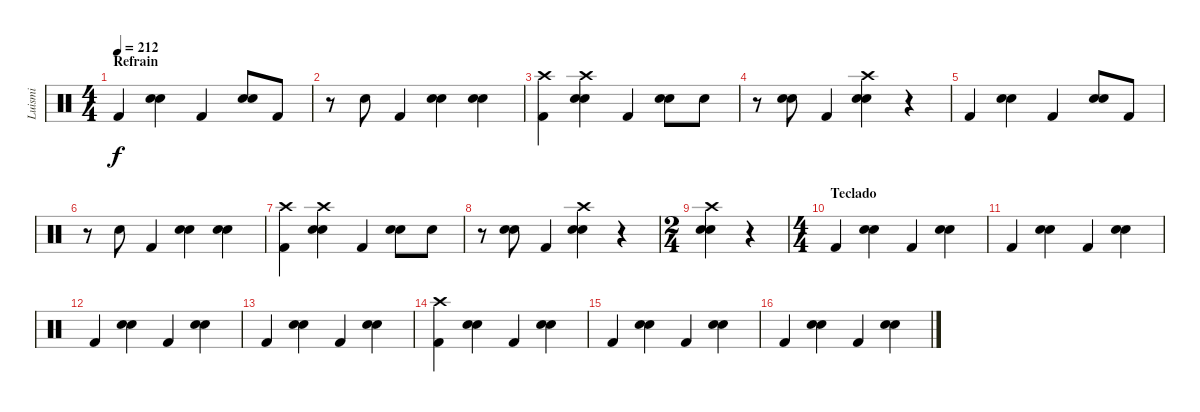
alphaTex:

\track ("Luismi" "Luismi") {instrument percussion}
\staff {score}
\articulation defaults
\ts (4 4)
\section ("" "Refrain")
\tempo 212
\clef neutral
\ks c "Kick (hit) 2".4{dy f}
("Electric Snare (hit)" "Snare (hit) 2").4 "Kick (hit) 2".4 ("Electric Snare (hit)" "Snare (hit) 2").8 "Kick (hit) 2".8 |
r.8 "Electric Snare (hit)".8 "Kick (hit) 2".4 ("Electric Snare (hit)" "Snare (hit) 2").4 ("Electric Snare (hit)" "Snare (hit) 2").4 |
("Crash high (hit)" "Kick (hit) 2").4 ("Crash high (hit)" "Electric Snare (hit)" "Snare (hit) 2").4 "Kick (hit) 2".4 ("Electric Snare (hit)" "Snare (hit) 2").8 "Snare (hit) 2".8 |
r.8 ("Electric Snare (hit)" "Snare (hit) 2").8 "Kick (hit) 2".4 ("Crash high (hit)" "Electric Snare (hit)" "Snare (hit) 2").4 r.4 |
"Kick (hit) 2".4 ("Electric Snare (hit)" "Snare (hit) 2").4 "Kick (hit) 2".4 ("Electric Snare (hit)" "Snare (hit) 2").8 "Kick (hit) 2".8 |
r.8 "Electric Snare (hit)".8 "Kick (hit) 2".4 ("Electric Snare (hit)" "Snare (hit) 2").4 ("Electric Snare (hit)" "Snare (hit) 2").4 |
("Crash high (hit)" "Kick (hit) 2").4 ("Crash high (hit)" "Electric Snare (hit)" "Snare (hit) 2").4 "Kick (hit) 2".4 ("Electric Snare (hit)" "Snare (hit) 2").8 "Snare (hit) 2".8 |
r.8 ("Electric Snare (hit)" "Snare (hit) 2").8 "Kick (hit) 2".4 ("Crash high (hit)" "Electric Snare (hit)" "Snare (hit) 2").4 r.4 |
\ts (2 4)
("Crash high (hit)" "Electric Snare (hit)" "Snare (hit) 2").4 r.4 |
\ts (4 4)
\section ("" "Teclado")
"Kick (hit) 2".4 ("Electric Snare (hit)" "Snare (hit) 2").4 "Kick (hit) 2".4 ("Electric Snare (hit)" "Snare (hit) 2").4 |
"Kick (hit) 2".4 ("Electric Snare (hit)" "Snare (hit) 2").4 "Kick (hit) 2".4 ("Electric Snare (hit)" "Snare (hit) 2").4 |
"Kick (hit) 2".4 ("Snare (hit) 2" "Electric Snare (hit)").4 "Kick (hit) 2".4 ("Electric Snare (hit)" "Snare (hit) 2").4 |
"Kick (hit) 2".4 ("Electric Snare (hit)" "Snare (hit) 2").4 "Kick (hit) 2".4 ("Electric Snare (hit)" "Snare (hit) 2").4 |
("Crash high (hit)" "Kick (hit) 2").4 ("Electric Snare (hit)" "Snare (hit) 2").4 "Kick (hit) 2".4 ("Electric Snare (hit)" "Snare (hit) 2").4 |
"Kick (hit) 2".4 ("Electric Snare (hit)" "Snare (hit) 2").4 "Kick (hit) 2".4 ("Electric Snare (hit)" "Snare (hit) 2").4 |
"Kick (hit) 2".4 ("Snare (hit) 2" "Electric Snare (hit)").4 "Kick (hit) 2".4 ("Electric Snare (hit)" "Snare (hit) 2").4
